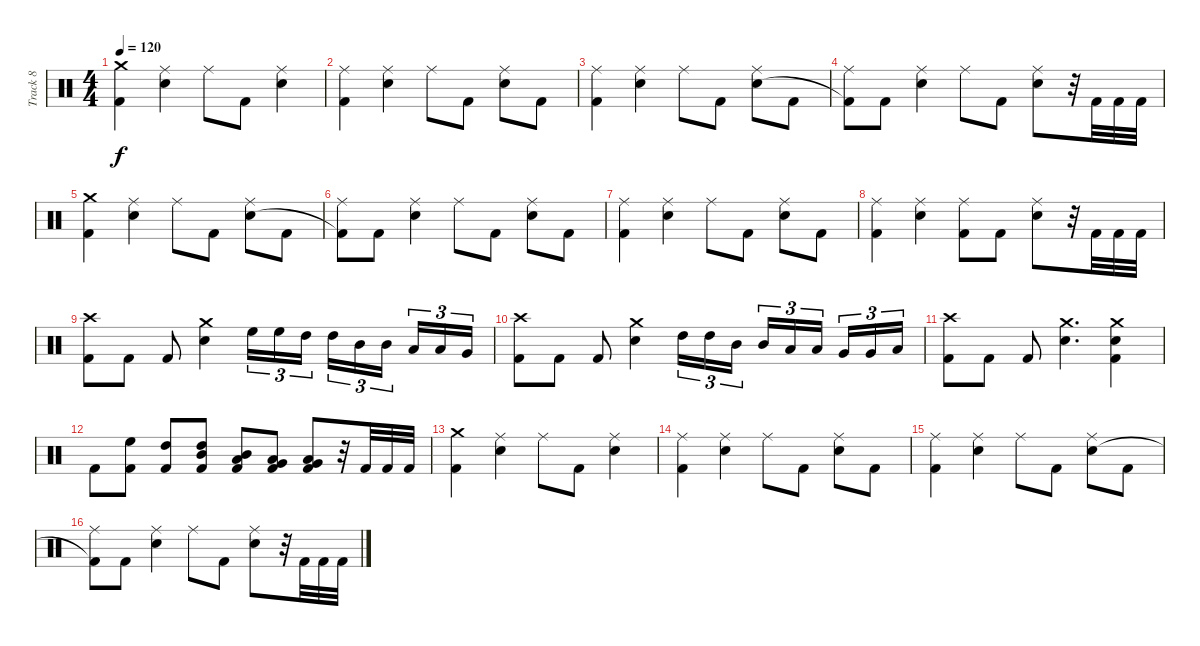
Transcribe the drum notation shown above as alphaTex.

\track ("Track 8" "Track 8") {instrument percussion}
\staff {score}
\articulation defaults
\ts (4 4)
\tempo 120
\clef neutral
\ks c
("Crash medium (hit)" "Kick (hit) 2").4{dy f} ("Ride (middle)" "Electric Snare (hit)").4 "Ride (middle)".8 "Kick (hit) 2".8 ("Ride (middle)" "Electric Snare (hit)").4 |
("Ride (middle)" "Kick (hit) 2").4 ("Ride (middle)" "Electric Snare (hit)").4 "Ride (middle)".8 "Kick (hit) 2".8 ("Ride (middle)" "Electric Snare (hit)").8 "Kick (hit) 2".8 |
("Ride (middle)" "Kick (hit) 2").4 ("Ride (middle)" "Electric Snare (hit)").4 "Ride (middle)".8 "Kick (hit) 2".8 ("Ride (middle)" "Electric Snare (hit)").8 "Kick (hit) 2".8 |
("Ride (middle)" "Kick (hit) 2"{t}).8 "Kick (hit) 2".8 ("Ride (middle)" "Electric Snare (hit)").4 "Ride (middle)".8 "Kick (hit) 2".8 ("Ride (middle)" "Electric Snare (hit)").8 r.32 "Kick (hit) 2".32 "Kick (hit) 2".32 "Kick (hit) 2".32 |
("Crash medium (hit)" "Kick (hit) 2").4 ("Ride (middle)" "Electric Snare (hit)").4 "Ride (middle)".8 "Kick (hit) 2".8 ("Ride (middle)" "Electric Snare (hit)").8 "Kick (hit) 2".8 |
("Ride (middle)" "Kick (hit) 2"{t}).8 "Kick (hit) 2".8 ("Ride (middle)" "Electric Snare (hit)").4 "Ride (middle)".8 "Kick (hit) 2".8 ("Ride (middle)" "Electric Snare (hit)").8 "Kick (hit) 2".8 |
("Ride (middle)" "Kick (hit) 2").4 ("Ride (middle)" "Electric Snare (hit)").4 "Ride (middle)".8 "Kick (hit) 2".8 ("Ride (middle)" "Electric Snare (hit)").8 "Kick (hit) 2".8 |
("Ride (middle)" "Kick (hit) 2").4 ("Ride (middle)" "Electric Snare (hit)").4 ("Ride (middle)" "Kick (hit) 2").8 "Kick (hit) 2".8 ("Ride (middle)" "Electric Snare (hit)").8 r.32 "Kick (hit) 2".32 "Kick (hit) 2".32 "Kick (hit) 2".32 |
("Crash high (hit)" "Kick (hit) 2").8 "Kick (hit) 2".8 "Kick (hit) 2".8 ("Crash medium (hit)" "Electric Snare (hit)").4 "High Floor Tom (hit)".16{tu (3 2)} "High Floor Tom (hit)".16{tu (3 2)} "High Tom (hit)".16{tu (3 2)} "High Tom (hit)".16{tu (3 2)} "Mid Tom (hit)".16{tu (3 2)} "Mid Tom (hit)".16{tu (3 2) beam splitsecondary} "Low Tom (hit)".16{tu (3 2)} "Low Tom (hit)".16{tu (3 2)} "Very Low Tom (hit)".16{tu (3 2)} |
("Crash high (hit)" "Kick (hit) 2").8 "Kick (hit) 2".8 "Kick (hit) 2".8 ("Crash medium (hit)" "Electric Snare (hit)").4 "High Tom (hit)".16{tu (3 2)} "High Tom (hit)".16{tu (3 2)} "Mid Tom (hit)".16{tu (3 2)} "Mid Tom (hit)".16{tu (3 2)} "Low Tom (hit)".16{tu (3 2)} "Low Tom (hit)".16{tu (3 2) beam splitsecondary} "Very Low Tom (hit)".16{tu (3 2)} "Very Low Tom (hit)".16{tu (3 2)} "Low Floor Tom (hit)".16{tu (3 2)} |
("Crash high (hit)" "Kick (hit) 2").8 "Kick (hit) 2".8 "Kick (hit) 2".8 ("Crash medium (hit)" "Electric Snare (hit)").4{d} ("Crash medium (hit)" "Electric Snare (hit)" "Kick (hit) 2").4 |
"Kick (hit) 2".8 ("High Floor Tom (hit)" "Kick (hit) 2").8 ("High Tom (hit)" "Kick (hit) 2").8 ("High Tom (hit)" "Mid Tom (hit)" "Kick (hit) 2").8 ("Mid Tom (hit)" "Low Tom (hit)" "Kick (hit) 2").8 ("Low Tom (hit)" "Very Low Tom (hit)" "Kick (hit) 2").8 ("Very Low Tom (hit)" "Low Floor Tom (hit)" "Kick (hit) 2").8 r.32 "Kick (hit) 2".32 "Kick (hit) 2".32 "Kick (hit) 2".32 |
("Crash medium (hit)" "Kick (hit) 2").4 ("Ride (middle)" "Electric Snare (hit)").4 "Ride (middle)".8 "Kick (hit) 2".8 ("Ride (middle)" "Electric Snare (hit)").4 |
("Ride (middle)" "Kick (hit) 2").4 ("Ride (middle)" "Electric Snare (hit)").4 "Ride (middle)".8 "Kick (hit) 2".8 ("Ride (middle)" "Electric Snare (hit)").8 "Kick (hit) 2".8 |
("Ride (middle)" "Kick (hit) 2").4 ("Ride (middle)" "Electric Snare (hit)").4 "Ride (middle)".8 "Kick (hit) 2".8 ("Ride (middle)" "Electric Snare (hit)").8 "Kick (hit) 2".8 |
("Ride (middle)" "Kick (hit) 2"{t}).8 "Kick (hit) 2".8 ("Ride (middle)" "Electric Snare (hit)").4 "Ride (middle)".8 "Kick (hit) 2".8 ("Ride (middle)" "Electric Snare (hit)").8 r.32 "Kick (hit) 2".32 "Kick (hit) 2".32 "Kick (hit) 2".32
